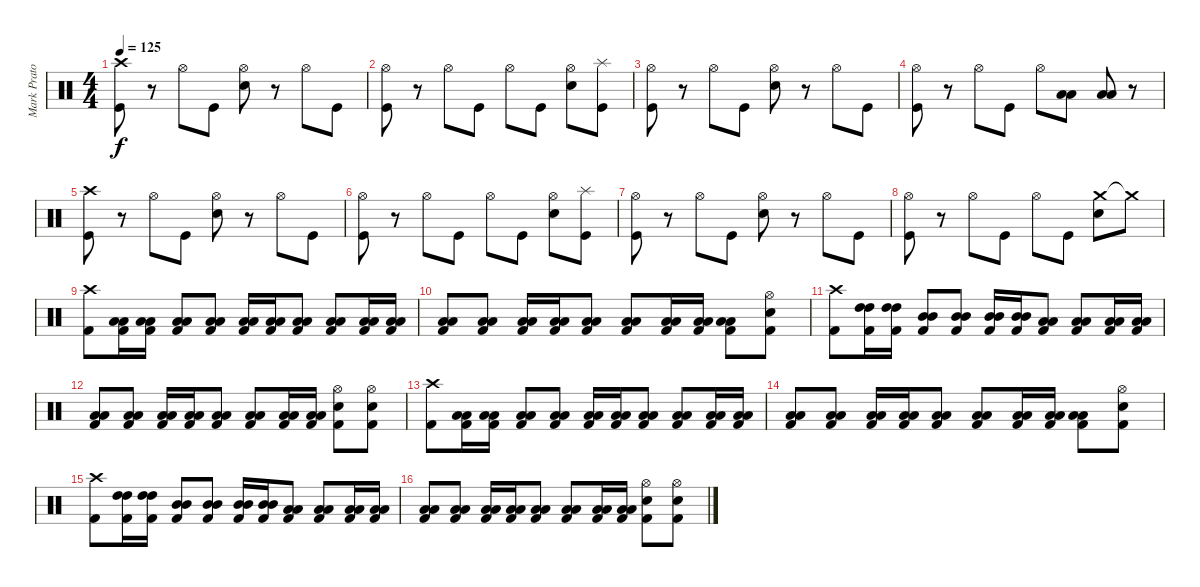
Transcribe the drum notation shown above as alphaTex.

\track ("Mark Prator" "Mark Prato") {instrument percussion}
\staff {score}
\articulation defaults
\ts (4 4)
\tempo 125
\clef neutral
\ks c
("Crash high (hit)" "Kick (hit)").8{dy f} r.8 "Hi-Hat (open)".8 "Kick (hit)".8 ("Hi-Hat (open)" "Electric Snare (hit)").8 r.8 "Hi-Hat (open)".8 "Kick (hit)".8 |
("Hi-Hat (open)" "Kick (hit)").8 r.8 "Hi-Hat (open)".8 "Kick (hit)".8 "Hi-Hat (open)".8 "Kick (hit)".8 ("Hi-Hat (open)" "Electric Snare (hit)").8 ("Splash (hit)" "Kick (hit)").8 |
("Hi-Hat (open)" "Kick (hit)").8 r.8 "Hi-Hat (open)".8 "Kick (hit)".8 ("Hi-Hat (open)" "Electric Snare (hit)").8 r.8 "Hi-Hat (open)".8 "Kick (hit)".8 |
("Hi-Hat (open)" "Kick (hit)").8 r.8 "Hi-Hat (open)".8 "Kick (hit)".8 "Hi-Hat (open)".8 ("Low Tom (hit)" "Low Tom (hit)").8 ("Low Tom (hit)" "Low Tom (hit)").8 r.8 |
("Crash high (hit)" "Kick (hit)").8 r.8 "Hi-Hat (open)".8 "Kick (hit)".8 ("Hi-Hat (open)" "Electric Snare (hit)").8 r.8 "Hi-Hat (open)".8 "Kick (hit)".8 |
("Hi-Hat (open)" "Kick (hit)").8 r.8 "Hi-Hat (open)".8 "Kick (hit)".8 "Hi-Hat (open)".8 "Kick (hit)".8 ("Hi-Hat (open)" "Electric Snare (hit)").8 ("Splash (hit)" "Kick (hit)").8 |
("Hi-Hat (open)" "Kick (hit)").8 r.8 "Hi-Hat (open)".8 "Kick (hit)".8 ("Hi-Hat (open)" "Electric Snare (hit)").8 r.8 "Hi-Hat (open)".8 "Kick (hit)".8 |
("Hi-Hat (open)" "Kick (hit)").8 r.8 "Hi-Hat (open)".8 "Kick (hit)".8 "Hi-Hat (open)".8 "Kick (hit)".8 ("Crash medium (hit)" "Electric Snare (hit)").8 "Crash medium (hit)"{t}.8 |
("Crash high (hit)" "Kick (hit) 2").8{volume 13} ("Low Tom (hit)" "Low Tom (hit)" "Kick (hit) 2").16 ("Low Tom (hit)" "Low Tom (hit)" "Kick (hit) 2").16 ("Low Floor Tom (hit)" "Low Floor Tom (hit)" "Kick (hit) 2").8 ("Low Floor Tom (hit)" "Low Floor Tom (hit)" "Kick (hit) 2").8 ("Low Tom (hit)" "Low Tom (hit)" "Kick (hit) 2").16 ("Low Tom (hit)" "Low Tom (hit)" "Kick (hit) 2").16 ("Low Floor Tom (hit)" "Low Floor Tom (hit)" "Kick (hit) 2").8 ("Low Floor Tom (hit)" "Low Floor Tom (hit)" "Kick (hit) 2").8 ("Low Tom (hit)" "Low Tom (hit)" "Kick (hit) 2").16 ("Low Tom (hit)" "Low Tom (hit)" "Kick (hit) 2").16 |
("Low Floor Tom (hit)" "Low Floor Tom (hit)" "Kick (hit) 2").8 ("Low Floor Tom (hit)" "Low Floor Tom (hit)" "Kick (hit) 2").8 ("Low Tom (hit)" "Low Tom (hit)" "Kick (hit) 2").16 ("Low Tom (hit)" "Low Tom (hit)" "Kick (hit) 2").16 ("Low Floor Tom (hit)" "Low Floor Tom (hit)" "Kick (hit) 2").8 ("Low Floor Tom (hit)" "Low Floor Tom (hit)" "Kick (hit) 2").8 ("Low Tom (hit)" "Low Tom (hit)" "Kick (hit) 2").16 ("Low Tom (hit)" "Low Tom (hit)" "Kick (hit) 2").16 ("Low Tom (hit)" "Low Tom (hit)" "Kick (hit) 2").8 ("Hi-Hat (open)" "Electric Snare (hit)" "Kick (hit) 2").8 |
("Crash high (hit)" "Kick (hit) 2").8 ("High Tom (hit)" "High Tom (hit)" "Kick (hit) 2").16 ("High Tom (hit)" "High Tom (hit)" "Kick (hit) 2").16 ("Mid Tom (hit)" "Mid Tom (hit)" "Kick (hit) 2").8 ("Mid Tom (hit)" "Mid Tom (hit)" "Kick (hit) 2").8 ("Mid Tom (hit)" "Mid Tom (hit)" "Kick (hit) 2").16 ("Mid Tom (hit)" "Mid Tom (hit)" "Kick (hit) 2").16 ("Low Tom (hit)" "Low Tom (hit)" "Kick (hit) 2").8 ("Low Tom (hit)" "Low Tom (hit)" "Kick (hit) 2").8 ("Low Floor Tom (hit)" "Low Floor Tom (hit)" "Kick (hit) 2").16 ("Low Floor Tom (hit)" "Low Floor Tom (hit)" "Kick (hit) 2").16 |
("Low Floor Tom (hit)" "Low Floor Tom (hit)" "Kick (hit) 2").8 ("Low Floor Tom (hit)" "Low Floor Tom (hit)" "Kick (hit) 2").8 ("Low Tom (hit)" "Low Tom (hit)" "Kick (hit) 2").16 ("Low Tom (hit)" "Low Tom (hit)" "Kick (hit) 2").16 ("Low Floor Tom (hit)" "Low Floor Tom (hit)" "Kick (hit) 2").8 ("Low Floor Tom (hit)" "Low Floor Tom (hit)" "Kick (hit) 2").8 ("Low Tom (hit)" "Low Tom (hit)" "Kick (hit) 2").16 ("Low Tom (hit)" "Low Tom (hit)" "Kick (hit) 2").16 ("Hi-Hat (open)" "Electric Snare (hit)" "Kick (hit) 2").8 ("Hi-Hat (open)" "Electric Snare (hit)" "Kick (hit) 2").8 |
("Crash high (hit)" "Kick (hit) 2").8 ("Low Tom (hit)" "Low Tom (hit)" "Kick (hit) 2").16 ("Low Tom (hit)" "Low Tom (hit)" "Kick (hit) 2").16 ("Low Floor Tom (hit)" "Low Floor Tom (hit)" "Kick (hit) 2").8 ("Low Floor Tom (hit)" "Low Floor Tom (hit)" "Kick (hit) 2").8 ("Low Tom (hit)" "Low Tom (hit)" "Kick (hit) 2").16 ("Low Tom (hit)" "Low Tom (hit)" "Kick (hit) 2").16 ("Low Floor Tom (hit)" "Low Floor Tom (hit)" "Kick (hit) 2").8 ("Low Floor Tom (hit)" "Low Floor Tom (hit)" "Kick (hit) 2").8 ("Low Tom (hit)" "Low Tom (hit)" "Kick (hit) 2").16 ("Low Tom (hit)" "Low Tom (hit)" "Kick (hit) 2").16 |
("Low Floor Tom (hit)" "Low Floor Tom (hit)" "Kick (hit) 2").8 ("Low Floor Tom (hit)" "Low Floor Tom (hit)" "Kick (hit) 2").8 ("Low Tom (hit)" "Low Tom (hit)" "Kick (hit) 2").16 ("Low Tom (hit)" "Low Tom (hit)" "Kick (hit) 2").16 ("Low Floor Tom (hit)" "Low Floor Tom (hit)" "Kick (hit) 2").8 ("Low Floor Tom (hit)" "Low Floor Tom (hit)" "Kick (hit) 2").8 ("Low Tom (hit)" "Low Tom (hit)" "Kick (hit) 2").16 ("Low Tom (hit)" "Low Tom (hit)" "Kick (hit) 2").16 ("Low Tom (hit)" "Low Tom (hit)" "Kick (hit) 2").8 ("Hi-Hat (open)" "Electric Snare (hit)" "Kick (hit) 2").8 |
("Crash high (hit)" "Kick (hit) 2").8 ("High Tom (hit)" "High Tom (hit)" "Kick (hit) 2").16 ("High Tom (hit)" "High Tom (hit)" "Kick (hit) 2").16 ("Mid Tom (hit)" "Mid Tom (hit)" "Kick (hit) 2").8 ("Mid Tom (hit)" "Mid Tom (hit)" "Kick (hit) 2").8 ("Mid Tom (hit)" "Mid Tom (hit)" "Kick (hit) 2").16 ("Mid Tom (hit)" "Mid Tom (hit)" "Kick (hit) 2").16 ("Low Tom (hit)" "Low Tom (hit)" "Kick (hit) 2").8 ("Low Tom (hit)" "Low Tom (hit)" "Kick (hit) 2").8 ("Low Floor Tom (hit)" "Low Floor Tom (hit)" "Kick (hit) 2").16 ("Low Floor Tom (hit)" "Low Floor Tom (hit)" "Kick (hit) 2").16 |
("Low Floor Tom (hit)" "Low Floor Tom (hit)" "Kick (hit) 2").8 ("Low Floor Tom (hit)" "Low Floor Tom (hit)" "Kick (hit) 2").8 ("Low Tom (hit)" "Low Tom (hit)" "Kick (hit) 2").16 ("Low Tom (hit)" "Low Tom (hit)" "Kick (hit) 2").16 ("Low Floor Tom (hit)" "Low Floor Tom (hit)" "Kick (hit) 2").8 ("Low Floor Tom (hit)" "Low Floor Tom (hit)" "Kick (hit) 2").8 ("Low Tom (hit)" "Low Tom (hit)" "Kick (hit) 2").16 ("Low Tom (hit)" "Low Tom (hit)" "Kick (hit) 2").16 ("Hi-Hat (open)" "Electric Snare (hit)" "Kick (hit) 2").8 ("Hi-Hat (open)" "Electric Snare (hit)" "Kick (hit) 2").8
